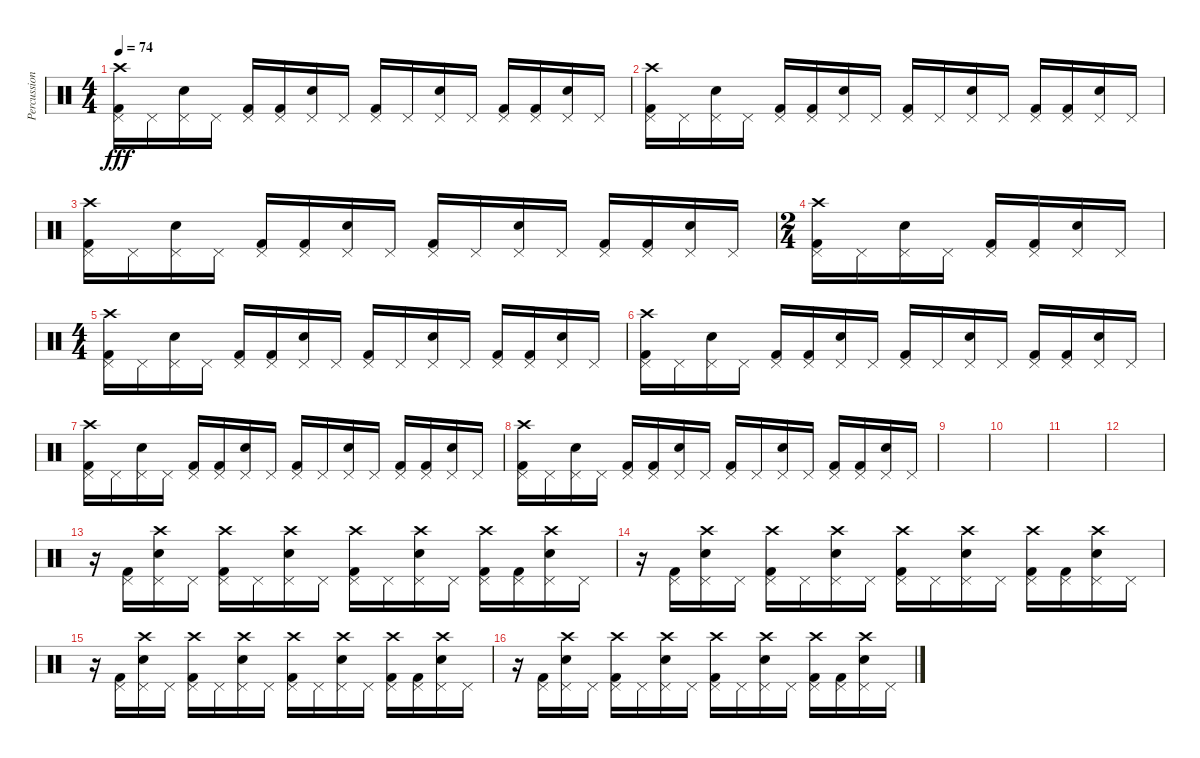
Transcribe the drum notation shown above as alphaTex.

\track ("Percussion" "Percussion") {instrument percussion}
\staff {score}
\articulation defaults
\ts (4 4)
\tempo 74
\clef neutral
\ks c
("Crash high (hit)" "Pedal Hi-Hat (hit)" "Kick (hit) 2").16{dy fff} "Pedal Hi-Hat (hit)".16 ("Pedal Hi-Hat (hit)" "Electric Snare (hit)").16 "Pedal Hi-Hat (hit)".16 ("Pedal Hi-Hat (hit)" "Kick (hit) 2").16 ("Pedal Hi-Hat (hit)" "Kick (hit) 2").16 ("Pedal Hi-Hat (hit)" "Electric Snare (hit)").16 "Pedal Hi-Hat (hit)".16 ("Pedal Hi-Hat (hit)" "Kick (hit) 2").16 "Pedal Hi-Hat (hit)".16 ("Pedal Hi-Hat (hit)" "Electric Snare (hit)").16 "Pedal Hi-Hat (hit)".16 ("Pedal Hi-Hat (hit)" "Kick (hit) 2").16 ("Pedal Hi-Hat (hit)" "Kick (hit) 2").16 ("Pedal Hi-Hat (hit)" "Electric Snare (hit)").16 "Pedal Hi-Hat (hit)".16 |
("Crash high (hit)" "Pedal Hi-Hat (hit)" "Kick (hit) 2").16 "Pedal Hi-Hat (hit)".16 ("Pedal Hi-Hat (hit)" "Electric Snare (hit)").16 "Pedal Hi-Hat (hit)".16 ("Pedal Hi-Hat (hit)" "Kick (hit) 2").16 ("Pedal Hi-Hat (hit)" "Kick (hit) 2").16 ("Pedal Hi-Hat (hit)" "Electric Snare (hit)").16 "Pedal Hi-Hat (hit)".16 ("Pedal Hi-Hat (hit)" "Kick (hit) 2").16 "Pedal Hi-Hat (hit)".16 ("Pedal Hi-Hat (hit)" "Electric Snare (hit)").16 "Pedal Hi-Hat (hit)".16 ("Pedal Hi-Hat (hit)" "Kick (hit) 2").16 ("Pedal Hi-Hat (hit)" "Kick (hit) 2").16 ("Pedal Hi-Hat (hit)" "Electric Snare (hit)").16 "Pedal Hi-Hat (hit)".16 |
("Crash high (hit)" "Pedal Hi-Hat (hit)" "Kick (hit) 2").16 "Pedal Hi-Hat (hit)".16 ("Pedal Hi-Hat (hit)" "Electric Snare (hit)").16 "Pedal Hi-Hat (hit)".16 ("Pedal Hi-Hat (hit)" "Kick (hit) 2").16 ("Pedal Hi-Hat (hit)" "Kick (hit) 2").16 ("Pedal Hi-Hat (hit)" "Electric Snare (hit)").16 "Pedal Hi-Hat (hit)".16 ("Pedal Hi-Hat (hit)" "Kick (hit) 2").16 "Pedal Hi-Hat (hit)".16 ("Pedal Hi-Hat (hit)" "Electric Snare (hit)").16 "Pedal Hi-Hat (hit)".16 ("Pedal Hi-Hat (hit)" "Kick (hit) 2").16 ("Pedal Hi-Hat (hit)" "Kick (hit) 2").16 ("Pedal Hi-Hat (hit)" "Electric Snare (hit)").16 "Pedal Hi-Hat (hit)".16 |
\ts (2 4)
("Crash high (hit)" "Pedal Hi-Hat (hit)" "Kick (hit) 2").16 "Pedal Hi-Hat (hit)".16 ("Pedal Hi-Hat (hit)" "Electric Snare (hit)").16 "Pedal Hi-Hat (hit)".16 ("Pedal Hi-Hat (hit)" "Kick (hit) 2").16 ("Pedal Hi-Hat (hit)" "Kick (hit) 2").16 ("Pedal Hi-Hat (hit)" "Electric Snare (hit)").16 "Pedal Hi-Hat (hit)".16 |
\ts (4 4)
("Crash high (hit)" "Pedal Hi-Hat (hit)" "Kick (hit) 2").16 "Pedal Hi-Hat (hit)".16 ("Pedal Hi-Hat (hit)" "Electric Snare (hit)").16 "Pedal Hi-Hat (hit)".16 ("Pedal Hi-Hat (hit)" "Kick (hit) 2").16 ("Pedal Hi-Hat (hit)" "Kick (hit) 2").16 ("Pedal Hi-Hat (hit)" "Electric Snare (hit)").16 "Pedal Hi-Hat (hit)".16 ("Pedal Hi-Hat (hit)" "Kick (hit) 2").16 "Pedal Hi-Hat (hit)".16 ("Pedal Hi-Hat (hit)" "Electric Snare (hit)").16 "Pedal Hi-Hat (hit)".16 ("Pedal Hi-Hat (hit)" "Kick (hit) 2").16 ("Pedal Hi-Hat (hit)" "Kick (hit) 2").16 ("Pedal Hi-Hat (hit)" "Electric Snare (hit)").16 "Pedal Hi-Hat (hit)".16 |
("Crash high (hit)" "Pedal Hi-Hat (hit)" "Kick (hit) 2").16 "Pedal Hi-Hat (hit)".16 ("Pedal Hi-Hat (hit)" "Electric Snare (hit)").16 "Pedal Hi-Hat (hit)".16 ("Pedal Hi-Hat (hit)" "Kick (hit) 2").16 ("Pedal Hi-Hat (hit)" "Kick (hit) 2").16 ("Pedal Hi-Hat (hit)" "Electric Snare (hit)").16 "Pedal Hi-Hat (hit)".16 ("Pedal Hi-Hat (hit)" "Kick (hit) 2").16 "Pedal Hi-Hat (hit)".16 ("Pedal Hi-Hat (hit)" "Electric Snare (hit)").16 "Pedal Hi-Hat (hit)".16 ("Pedal Hi-Hat (hit)" "Kick (hit) 2").16 ("Pedal Hi-Hat (hit)" "Kick (hit) 2").16 ("Pedal Hi-Hat (hit)" "Electric Snare (hit)").16 "Pedal Hi-Hat (hit)".16 |
("Crash high (hit)" "Pedal Hi-Hat (hit)" "Kick (hit) 2").16 "Pedal Hi-Hat (hit)".16 ("Pedal Hi-Hat (hit)" "Electric Snare (hit)").16 "Pedal Hi-Hat (hit)".16 ("Pedal Hi-Hat (hit)" "Kick (hit) 2").16 ("Pedal Hi-Hat (hit)" "Kick (hit) 2").16 ("Pedal Hi-Hat (hit)" "Electric Snare (hit)").16 "Pedal Hi-Hat (hit)".16 ("Pedal Hi-Hat (hit)" "Kick (hit) 2").16 "Pedal Hi-Hat (hit)".16 ("Pedal Hi-Hat (hit)" "Electric Snare (hit)").16 "Pedal Hi-Hat (hit)".16 ("Pedal Hi-Hat (hit)" "Kick (hit) 2").16 ("Pedal Hi-Hat (hit)" "Kick (hit) 2").16 ("Pedal Hi-Hat (hit)" "Electric Snare (hit)").16 "Pedal Hi-Hat (hit)".16 |
("Crash high (hit)" "Pedal Hi-Hat (hit)" "Kick (hit) 2").16 "Pedal Hi-Hat (hit)".16 ("Pedal Hi-Hat (hit)" "Electric Snare (hit)").16 "Pedal Hi-Hat (hit)".16 ("Pedal Hi-Hat (hit)" "Kick (hit) 2").16 ("Pedal Hi-Hat (hit)" "Kick (hit) 2").16 ("Pedal Hi-Hat (hit)" "Electric Snare (hit)").16 "Pedal Hi-Hat (hit)".16 ("Pedal Hi-Hat (hit)" "Kick (hit) 2").16 "Pedal Hi-Hat (hit)".16 ("Pedal Hi-Hat (hit)" "Electric Snare (hit)").16 "Pedal Hi-Hat (hit)".16 ("Pedal Hi-Hat (hit)" "Kick (hit) 2").16 ("Pedal Hi-Hat (hit)" "Kick (hit) 2").16 ("Pedal Hi-Hat (hit)" "Electric Snare (hit)").16 "Pedal Hi-Hat (hit)".16 |
|
|
|
|
r.16 ("Pedal Hi-Hat (hit)" "Kick (hit) 2").16 ("Crash high (hit)" "Pedal Hi-Hat (hit)" "Electric Snare (hit)").16 "Pedal Hi-Hat (hit)".16 ("Crash high (hit)" "Pedal Hi-Hat (hit)" "Kick (hit) 2").16 "Pedal Hi-Hat (hit)".16 ("Crash high (hit)" "Pedal Hi-Hat (hit)" "Electric Snare (hit)").16 "Pedal Hi-Hat (hit)".16 ("Crash high (hit)" "Pedal Hi-Hat (hit)" "Kick (hit) 2").16 "Pedal Hi-Hat (hit)".16 ("Crash high (hit)" "Pedal Hi-Hat (hit)" "Electric Snare (hit)").16 "Pedal Hi-Hat (hit)".16 ("Crash high (hit)" "Pedal Hi-Hat (hit)" "Kick (hit) 2").16 ("Pedal Hi-Hat (hit)" "Kick (hit) 2").16 ("Crash high (hit)" "Pedal Hi-Hat (hit)" "Electric Snare (hit)").16 "Pedal Hi-Hat (hit)".16 |
r.16{volume 0} ("Pedal Hi-Hat (hit)" "Kick (hit) 2").16{volume 13} ("Crash high (hit)" "Pedal Hi-Hat (hit)" "Electric Snare (hit)").16 "Pedal Hi-Hat (hit)".16 ("Crash high (hit)" "Pedal Hi-Hat (hit)" "Kick (hit) 2").16 "Pedal Hi-Hat (hit)".16 ("Crash high (hit)" "Pedal Hi-Hat (hit)" "Electric Snare (hit)").16 "Pedal Hi-Hat (hit)".16 ("Crash high (hit)" "Pedal Hi-Hat (hit)" "Kick (hit) 2").16 "Pedal Hi-Hat (hit)".16 ("Crash high (hit)" "Pedal Hi-Hat (hit)" "Electric Snare (hit)").16 "Pedal Hi-Hat (hit)".16 ("Crash high (hit)" "Pedal Hi-Hat (hit)" "Kick (hit) 2").16 ("Pedal Hi-Hat (hit)" "Kick (hit) 2").16 ("Crash high (hit)" "Pedal Hi-Hat (hit)" "Electric Snare (hit)").16 "Pedal Hi-Hat (hit)".16 |
r.16{volume 0} ("Pedal Hi-Hat (hit)" "Kick (hit) 2").16{volume 13} ("Crash high (hit)" "Pedal Hi-Hat (hit)" "Electric Snare (hit)").16 "Pedal Hi-Hat (hit)".16 ("Crash high (hit)" "Pedal Hi-Hat (hit)" "Kick (hit) 2").16 "Pedal Hi-Hat (hit)".16 ("Crash high (hit)" "Pedal Hi-Hat (hit)" "Electric Snare (hit)").16 "Pedal Hi-Hat (hit)".16 ("Crash high (hit)" "Pedal Hi-Hat (hit)" "Kick (hit) 2").16 "Pedal Hi-Hat (hit)".16 ("Crash high (hit)" "Pedal Hi-Hat (hit)" "Electric Snare (hit)").16 "Pedal Hi-Hat (hit)".16 ("Crash high (hit)" "Pedal Hi-Hat (hit)" "Kick (hit) 2").16 ("Pedal Hi-Hat (hit)" "Kick (hit) 2").16 ("Crash high (hit)" "Pedal Hi-Hat (hit)" "Electric Snare (hit)").16 "Pedal Hi-Hat (hit)".16 |
r.16{volume 0} ("Pedal Hi-Hat (hit)" "Kick (hit) 2").16{volume 13} ("Crash high (hit)" "Pedal Hi-Hat (hit)" "Electric Snare (hit)").16 "Pedal Hi-Hat (hit)".16 ("Crash high (hit)" "Pedal Hi-Hat (hit)" "Kick (hit) 2").16 "Pedal Hi-Hat (hit)".16 ("Crash high (hit)" "Pedal Hi-Hat (hit)" "Electric Snare (hit)").16 "Pedal Hi-Hat (hit)".16 ("Crash high (hit)" "Pedal Hi-Hat (hit)" "Kick (hit) 2").16 "Pedal Hi-Hat (hit)".16 ("Crash high (hit)" "Pedal Hi-Hat (hit)" "Electric Snare (hit)").16 "Pedal Hi-Hat (hit)".16 ("Crash high (hit)" "Pedal Hi-Hat (hit)" "Kick (hit) 2").16 ("Pedal Hi-Hat (hit)" "Kick (hit) 2").16 ("Crash high (hit)" "Pedal Hi-Hat (hit)" "Electric Snare (hit)").16 "Pedal Hi-Hat (hit)".16
